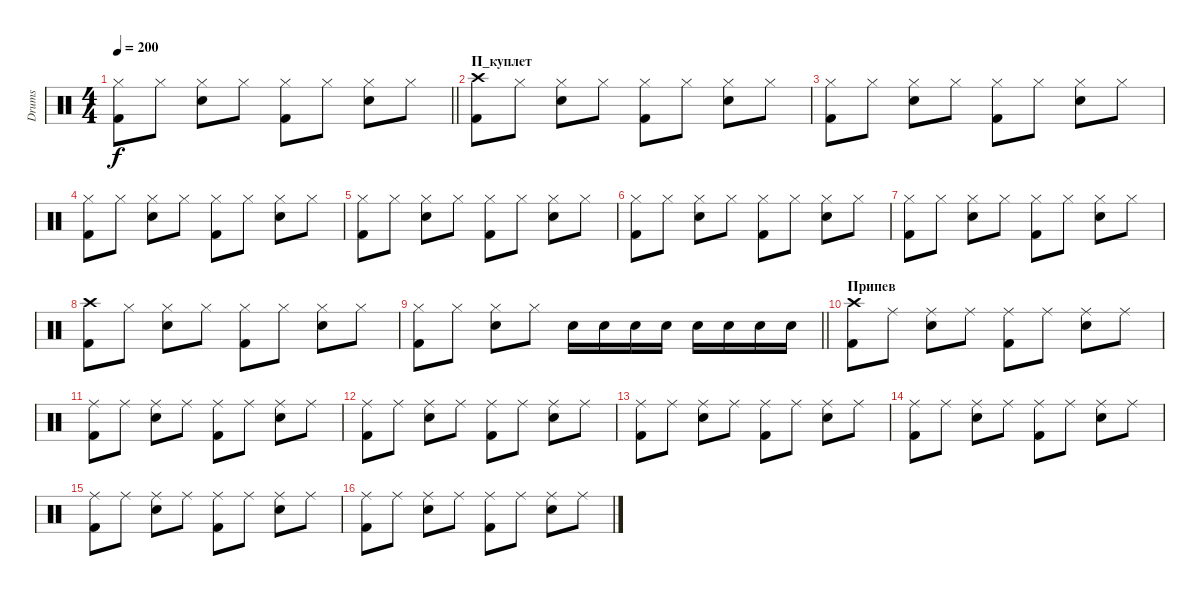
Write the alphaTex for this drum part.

\track ("Drums" "Drums") {instrument percussion}
\staff {score}
\articulation defaults
\ts (4 4)
\tempo 200
\clef neutral
\barLineRight lightlight
\ks c
("Hi-Hat (closed)" "Kick (hit) 2").8{dy f} "Hi-Hat (closed)".8 ("Hi-Hat (closed)" "Snare (hit) 2").8 "Hi-Hat (closed)".8 ("Hi-Hat (closed)" "Kick (hit) 2").8 "Hi-Hat (closed)".8 ("Hi-Hat (closed)" "Snare (hit) 2").8 "Hi-Hat (closed)".8 |
\section ("" "П_куплет")
("Crash high (hit)" "Kick (hit) 2").8 "Hi-Hat (closed)".8 ("Hi-Hat (closed)" "Snare (hit) 2").8 "Hi-Hat (closed)".8 ("Hi-Hat (closed)" "Kick (hit) 2").8 "Hi-Hat (closed)".8 ("Hi-Hat (closed)" "Snare (hit) 2").8 "Hi-Hat (closed)".8 |
("Hi-Hat (closed)" "Kick (hit) 2").8 "Hi-Hat (closed)".8 ("Hi-Hat (closed)" "Snare (hit) 2").8 "Hi-Hat (closed)".8 ("Hi-Hat (closed)" "Kick (hit) 2").8 "Hi-Hat (closed)".8 ("Hi-Hat (closed)" "Snare (hit) 2").8 "Hi-Hat (closed)".8 |
("Hi-Hat (closed)" "Kick (hit) 2").8 "Hi-Hat (closed)".8 ("Hi-Hat (closed)" "Snare (hit) 2").8 "Hi-Hat (closed)".8 ("Hi-Hat (closed)" "Kick (hit) 2").8 "Hi-Hat (closed)".8 ("Hi-Hat (closed)" "Snare (hit) 2").8 "Hi-Hat (closed)".8 |
("Hi-Hat (closed)" "Kick (hit) 2").8 "Hi-Hat (closed)".8 ("Hi-Hat (closed)" "Snare (hit) 2").8 "Hi-Hat (closed)".8 ("Hi-Hat (closed)" "Kick (hit) 2").8 "Hi-Hat (closed)".8 ("Hi-Hat (closed)" "Snare (hit) 2").8 "Hi-Hat (closed)".8 |
("Hi-Hat (closed)" "Kick (hit) 2").8 "Hi-Hat (closed)".8 ("Hi-Hat (closed)" "Snare (hit) 2").8 "Hi-Hat (closed)".8 ("Hi-Hat (closed)" "Kick (hit) 2").8 "Hi-Hat (closed)".8 ("Hi-Hat (closed)" "Snare (hit) 2").8 "Hi-Hat (closed)".8 |
("Hi-Hat (closed)" "Kick (hit) 2").8 "Hi-Hat (closed)".8 ("Hi-Hat (closed)" "Snare (hit) 2").8 "Hi-Hat (closed)".8 ("Hi-Hat (closed)" "Kick (hit) 2").8 "Hi-Hat (closed)".8 ("Hi-Hat (closed)" "Snare (hit) 2").8 "Hi-Hat (closed)".8 |
("Crash high (hit)" "Kick (hit) 2").8 "Hi-Hat (closed)".8 ("Hi-Hat (closed)" "Snare (hit) 2").8 "Hi-Hat (closed)".8 ("Hi-Hat (closed)" "Kick (hit) 2").8 "Hi-Hat (closed)".8 ("Hi-Hat (closed)" "Snare (hit) 2").8 "Hi-Hat (closed)".8 |
\barLineRight lightlight
("Hi-Hat (closed)" "Kick (hit) 2").8 "Hi-Hat (closed)".8 ("Hi-Hat (closed)" "Snare (hit) 2").8 "Hi-Hat (closed)".8 "Snare (hit) 2".16 "Snare (hit) 2".16 "Snare (hit) 2".16 "Snare (hit) 2".16 "Snare (hit) 2".16 "Snare (hit) 2".16 "Snare (hit) 2".16 "Snare (hit) 2".16 |
\section ("" "Припев")
("Crash high (hit)" "Kick (hit) 2").8 "Ride (middle)".8 ("Ride (middle)" "Snare (hit) 2").8 "Ride (middle)".8 ("Ride (middle)" "Kick (hit) 2").8 "Ride (middle)".8 ("Ride (middle)" "Snare (hit) 2").8 "Ride (middle)".8 |
("Ride (middle)" "Kick (hit) 2").8 "Ride (middle)".8 ("Ride (middle)" "Snare (hit) 2").8 "Ride (middle)".8 ("Ride (middle)" "Kick (hit) 2").8 "Ride (middle)".8 ("Ride (middle)" "Snare (hit) 2").8 "Ride (middle)".8 |
("Ride (middle)" "Kick (hit) 2").8 "Ride (middle)".8 ("Ride (middle)" "Snare (hit) 2").8 "Ride (middle)".8 ("Ride (middle)" "Kick (hit) 2").8 "Ride (middle)".8 ("Ride (middle)" "Snare (hit) 2").8 "Ride (middle)".8 |
("Ride (middle)" "Kick (hit) 2").8 "Ride (middle)".8 ("Ride (middle)" "Snare (hit) 2").8 "Ride (middle)".8 ("Ride (middle)" "Kick (hit) 2").8 "Ride (middle)".8 ("Ride (middle)" "Snare (hit) 2").8 "Ride (middle)".8 |
("Ride (middle)" "Kick (hit) 2").8 "Ride (middle)".8 ("Ride (middle)" "Snare (hit) 2").8 "Ride (middle)".8 ("Ride (middle)" "Kick (hit) 2").8 "Ride (middle)".8 ("Ride (middle)" "Snare (hit) 2").8 "Ride (middle)".8 |
("Ride (middle)" "Kick (hit) 2").8 "Ride (middle)".8 ("Ride (middle)" "Snare (hit) 2").8 "Ride (middle)".8 ("Ride (middle)" "Kick (hit) 2").8 "Ride (middle)".8 ("Ride (middle)" "Snare (hit) 2").8 "Ride (middle)".8 |
("Ride (middle)" "Kick (hit) 2").8 "Ride (middle)".8 ("Ride (middle)" "Snare (hit) 2").8 "Ride (middle)".8 ("Ride (middle)" "Kick (hit) 2").8 "Ride (middle)".8 ("Ride (middle)" "Snare (hit) 2").8 "Ride (middle)".8
